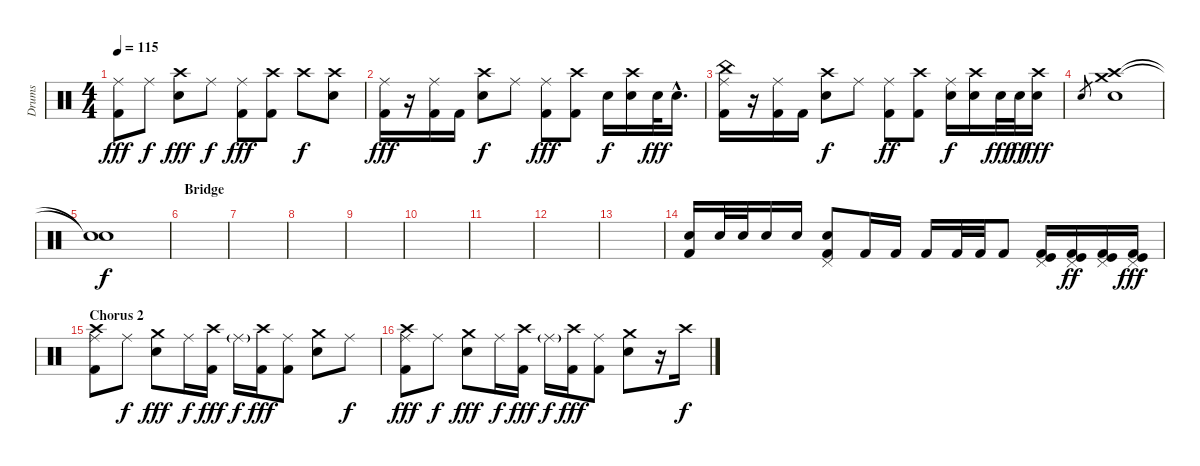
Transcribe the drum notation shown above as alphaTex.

\track ("Drums" "Drums") {instrument percussion}
\staff {score}
\articulation defaults
\ts (4 4)
\tempo 115
\clef neutral
\ks c
("Ride (middle)" "Kick (hit) 2").8{dy fff} "Ride (middle)".8{dy f} ("Crash high (hit)" "Electric Snare (hit)").8{dy fff} "Ride (middle)".8{dy f} ("Ride (middle)" "Kick (hit) 2").8{dy fff} ("Crash high (hit)" "Kick (hit) 2").8 "Crash high (hit)".8{dy f} ("Crash high (hit)" "Snare (hit) 2").8 |
("Ride (middle)" "Kick (hit) 2").16{dy fff} r.16 ("Ride (middle)" "Kick (hit) 2").16 "Kick (hit) 2".16 ("Crash high (hit)" "Snare (hit) 2").8{dy f} "Ride (middle)".8 ("Ride (middle)" "Kick (hit) 2").8{dy fff} ("Crash high (hit)" "Kick (hit) 2").8 "Snare (hit) 2".16{dy f} ("Crash high (hit)" "Snare (hit) 2").16 "Snare (hit) 2".32{dy fff} "Snare (hit) 2"{hac}.16{d} |
("China (hit)" "Ride (middle)" "Kick (hit) 2").16 r.16 ("Ride (middle)" "Kick (hit) 2").16 "Kick (hit) 2".16 ("Crash high (hit)" "Snare (hit) 2").8{dy f} "Ride (middle)".8 ("Ride (middle)" "Kick (hit) 2").8{dy ff} ("Crash high (hit)" "Kick (hit) 2").8 ("Ride (middle)" "Snare (hit) 2").16{dy f} ("Crash high (hit)" "Snare (hit) 2").16 "Electric Snare (hit)".32{dy fff} "Snare (hit) 2".32{dy ff} ("Crash high (hit)" "Electric Snare (hit)").16{dy fff} |
"Snare (hit) 2".8{gr} ("Crash high (hit)" "Crash medium (hit)" "Electric Snare (hit)").1 |
("Snare (hit)"{t} "Snare (hit)"{t}).1{dy f} |
\section ("" "Bridge")
|
|
|
|
|
|
|
|
("Snare (hit) 2" "Kick (hit) 2").16{volume 12} "Snare (hit) 2".32 "Snare (hit) 2".32 "Snare (hit) 2".16 "Snare (hit) 2".16 ("Snare (hit) 2" "Kick (hit) 2" "Pedal Hi-Hat (hit)").8 "Kick (hit) 2".16 "Kick (hit) 2".16 "Kick (hit) 2".16 "Kick (hit) 2".32 "Kick (hit) 2".32 "Kick (hit) 2".8 ("Kick (hit)" "Kick (hit) 2" "Pedal Hi-Hat (hit)").16 ("Kick (hit)" "Kick (hit) 2" "Pedal Hi-Hat (hit)").16{dy ff} ("Kick (hit)" "Kick (hit) 2" "Pedal Hi-Hat (hit)").16 ("Kick (hit)" "Kick (hit) 2" "Pedal Hi-Hat (hit)").16{dy fff} |
\section ("" "Chorus 2")
("Ride (middle)" "Crash high (hit)" "Kick (hit) 2").8{volume 10} "Ride (middle)".8{dy f} ("Crash medium (hit)" "Electric Snare (hit)").8{dy fff} "Ride (middle)".16{dy f} ("Crash high (hit)" "Kick (hit) 2").16{dy fff} "Ride (middle)"{g}.16{dy f} ("Crash high (hit)" "Kick (hit) 2").16{dy fff} ("Ride (middle)" "Kick (hit) 2").8 ("Crash medium (hit)" "Electric Snare (hit)").8 "Ride (middle)".8{dy f} |
("Ride (middle)" "Crash high (hit)" "Kick (hit) 2").8{dy fff} "Ride (middle)".8{dy f} ("Crash medium (hit)" "Electric Snare (hit)").8{dy fff} "Ride (middle)".16{dy f} ("Crash high (hit)" "Kick (hit) 2").16{dy fff} "Ride (middle)"{g}.16{dy f} ("Crash high (hit)" "Kick (hit) 2").16{dy fff} ("Ride (middle)" "Kick (hit) 2").8 ("Crash medium (hit)" "Electric Snare (hit)").8 r.16 "Crash high (hit)".16{dy f}
